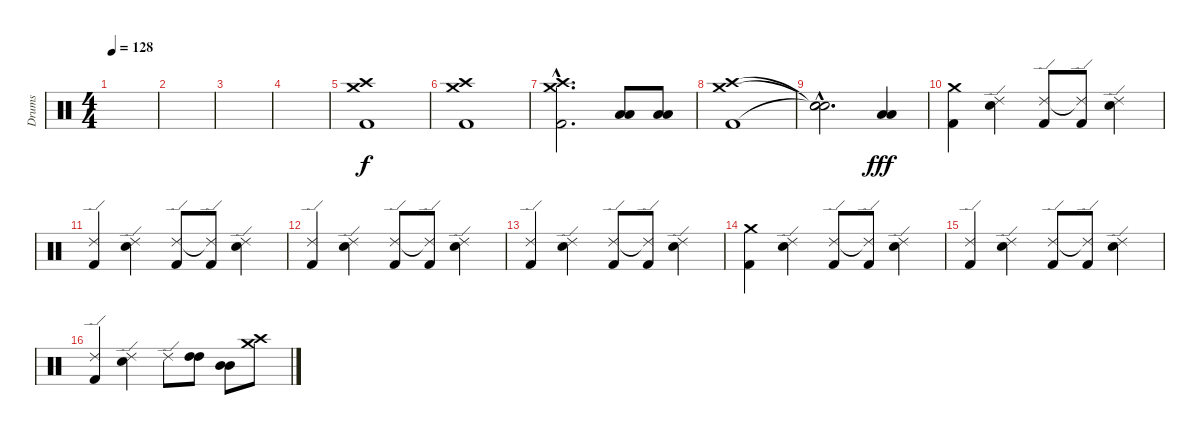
\track ("Drums" "Drums") {instrument percussion}
\staff {score}
\articulation defaults
\ts (4 4)
\tempo 128
\clef neutral
\ks c
|
|
|
|
("Crash high (hit)" "Crash medium (hit)" "Kick (hit) 2").1 |
("Crash high (hit)" "Crash medium (hit)" "Kick (hit) 2").1 |
("Crash high (hit)"{hac} "Crash medium (hit)"{hac} "Kick (hit) 2"{hac}).2{d} ("Low Tom (hit)" "Low Tom (hit)").8 ("Low Tom (hit)" "Low Tom (hit)").8 |
("Crash high (hit)" "Crash medium (hit)" "Kick (hit) 2").1 |
("Snare (hit)"{hac t} "Snare (hit)"{hac t} "Snare (hit)"{hac t}).2{d dy f} ("Low Tom (hit)" "Low Tom (hit)").4{dy fff} |
("Crash medium (hit)" "Kick (hit) 2").4 ("Ride (edge) 2" "Electric Snare (hit)").4 ("Ride (edge) 2" "Kick (hit) 2").8 ("Ride (edge) 2"{t} "Kick (hit) 2").8 ("Ride (edge) 2" "Electric Snare (hit)").4 |
("Ride (edge) 2" "Kick (hit) 2").4 ("Ride (edge) 2" "Electric Snare (hit)").4 ("Ride (edge) 2" "Kick (hit) 2").8 ("Ride (edge) 2"{t} "Kick (hit) 2").8 ("Ride (edge) 2" "Electric Snare (hit)").4 |
("Ride (edge) 2" "Kick (hit) 2").4 ("Ride (edge) 2" "Electric Snare (hit)").4 ("Ride (edge) 2" "Kick (hit) 2").8 ("Ride (edge) 2"{t} "Kick (hit) 2").8 ("Ride (edge) 2" "Electric Snare (hit)").4 |
("Ride (edge) 2" "Kick (hit) 2").4 ("Ride (edge) 2" "Electric Snare (hit)").4 ("Ride (edge) 2" "Kick (hit) 2").8 ("Ride (edge) 2"{t} "Kick (hit) 2").8 ("Ride (edge) 2" "Electric Snare (hit)").4 |
("Crash medium (hit)" "Kick (hit) 2").4 ("Ride (edge) 2" "Electric Snare (hit)").4 ("Ride (edge) 2" "Kick (hit) 2").8 ("Ride (edge) 2"{t} "Kick (hit) 2").8 ("Ride (edge) 2" "Electric Snare (hit)").4 |
("Ride (edge) 2" "Kick (hit) 2").4 ("Ride (edge) 2" "Electric Snare (hit)").4 ("Ride (edge) 2" "Kick (hit) 2").8 ("Ride (edge) 2"{t} "Kick (hit) 2").8 ("Ride (edge) 2" "Electric Snare (hit)").4 |
("Ride (edge) 2" "Kick (hit) 2").4 ("Ride (edge) 2" "Electric Snare (hit)").4 "Ride (edge) 2".8 ("High Tom (hit)" "High Tom (hit)").8 ("Mid Tom (hit)" "Mid Tom (hit)").8 ("Crash medium (hit)" "Crash high (hit)").8
